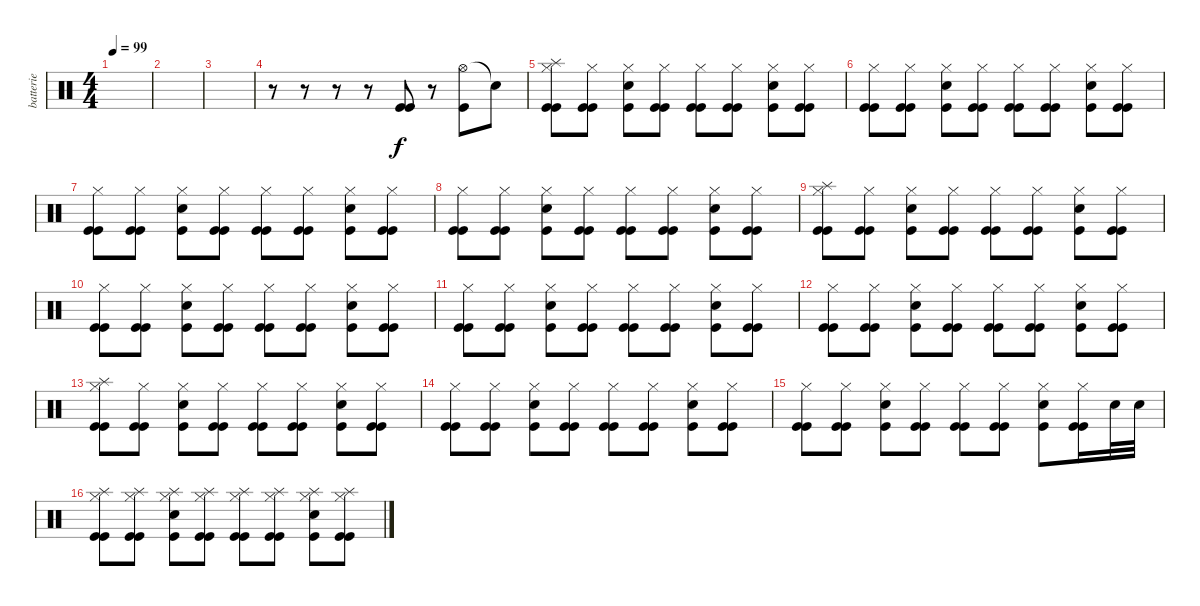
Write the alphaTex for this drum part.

\track ("batterie" "batterie") {instrument percussion}
\staff {score}
\articulation defaults
\ts (4 4)
\tempo 99
\clef neutral
\ks c
|
|
|
r.8 r.8 r.8 r.8 ("Kick (hit)" "Kick (hit)").8 r.8 ("Hi-Hat (open)" "Kick (hit)").8 "Snare (hit)"{t}.8 |
("Kick (hit)" "Splash (hit)" "Hi-Hat (closed)" "Kick (hit)").8 ("Kick (hit)" "Hi-Hat (closed)" "Kick (hit)").8 ("Electric Snare (hit)" "Hi-Hat (closed)" "Kick (hit)").8 ("Kick (hit)" "Hi-Hat (closed)" "Kick (hit)").8 ("Kick (hit)" "Hi-Hat (closed)" "Kick (hit)").8 ("Kick (hit)" "Hi-Hat (closed)" "Kick (hit)").8 ("Electric Snare (hit)" "Hi-Hat (closed)" "Kick (hit)").8 ("Kick (hit)" "Hi-Hat (closed)" "Kick (hit)").8 |
("Kick (hit)" "Hi-Hat (closed)" "Kick (hit)").8 ("Kick (hit)" "Hi-Hat (closed)" "Kick (hit)").8 ("Electric Snare (hit)" "Hi-Hat (closed)" "Kick (hit)").8 ("Kick (hit)" "Hi-Hat (closed)" "Kick (hit)").8 ("Kick (hit)" "Hi-Hat (closed)" "Kick (hit)").8 ("Kick (hit)" "Hi-Hat (closed)" "Kick (hit)").8 ("Electric Snare (hit)" "Hi-Hat (closed)" "Kick (hit)").8 ("Kick (hit)" "Hi-Hat (closed)" "Kick (hit)").8 |
("Kick (hit)" "Hi-Hat (closed)" "Kick (hit)").8 ("Kick (hit)" "Hi-Hat (closed)" "Kick (hit)").8 ("Electric Snare (hit)" "Hi-Hat (closed)" "Kick (hit)").8 ("Kick (hit)" "Hi-Hat (closed)" "Kick (hit)").8 ("Kick (hit)" "Hi-Hat (closed)" "Kick (hit)").8 ("Kick (hit)" "Hi-Hat (closed)" "Kick (hit)").8 ("Electric Snare (hit)" "Hi-Hat (closed)" "Kick (hit)").8 ("Kick (hit)" "Hi-Hat (closed)" "Kick (hit)").8 |
("Kick (hit)" "Hi-Hat (closed)" "Kick (hit)").8 ("Kick (hit)" "Hi-Hat (closed)" "Kick (hit)").8 ("Electric Snare (hit)" "Hi-Hat (closed)" "Kick (hit)").8 ("Kick (hit)" "Hi-Hat (closed)" "Kick (hit)").8 ("Kick (hit)" "Hi-Hat (closed)" "Kick (hit)").8 ("Kick (hit)" "Hi-Hat (closed)" "Kick (hit)").8 ("Electric Snare (hit)" "Hi-Hat (closed)" "Kick (hit)").8 ("Kick (hit)" "Hi-Hat (closed)" "Kick (hit)").8 |
("Kick (hit)" "Splash (hit)" "Hi-Hat (closed)" "Kick (hit)").8 ("Kick (hit)" "Hi-Hat (closed)" "Kick (hit)").8 ("Electric Snare (hit)" "Hi-Hat (closed)" "Kick (hit)").8 ("Kick (hit)" "Hi-Hat (closed)" "Kick (hit)").8 ("Kick (hit)" "Hi-Hat (closed)" "Kick (hit)").8 ("Kick (hit)" "Hi-Hat (closed)" "Kick (hit)").8 ("Electric Snare (hit)" "Hi-Hat (closed)" "Kick (hit)").8 ("Kick (hit)" "Hi-Hat (closed)" "Kick (hit)").8 |
("Kick (hit)" "Hi-Hat (closed)" "Kick (hit)").8 ("Kick (hit)" "Hi-Hat (closed)" "Kick (hit)").8 ("Electric Snare (hit)" "Hi-Hat (closed)" "Kick (hit)").8 ("Kick (hit)" "Hi-Hat (closed)" "Kick (hit)").8 ("Kick (hit)" "Hi-Hat (closed)" "Kick (hit)").8 ("Kick (hit)" "Hi-Hat (closed)" "Kick (hit)").8 ("Electric Snare (hit)" "Hi-Hat (closed)" "Kick (hit)").8 ("Kick (hit)" "Hi-Hat (closed)" "Kick (hit)").8 |
("Kick (hit)" "Hi-Hat (closed)" "Kick (hit)").8 ("Kick (hit)" "Hi-Hat (closed)" "Kick (hit)").8 ("Electric Snare (hit)" "Hi-Hat (closed)" "Kick (hit)").8 ("Kick (hit)" "Hi-Hat (closed)" "Kick (hit)").8 ("Kick (hit)" "Hi-Hat (closed)" "Kick (hit)").8 ("Kick (hit)" "Hi-Hat (closed)" "Kick (hit)").8 ("Electric Snare (hit)" "Hi-Hat (closed)" "Kick (hit)").8 ("Kick (hit)" "Hi-Hat (closed)" "Kick (hit)").8 |
("Kick (hit)" "Hi-Hat (closed)" "Kick (hit)").8 ("Kick (hit)" "Hi-Hat (closed)" "Kick (hit)").8 ("Electric Snare (hit)" "Hi-Hat (closed)" "Kick (hit)").8 ("Kick (hit)" "Hi-Hat (closed)" "Kick (hit)").8 ("Kick (hit)" "Hi-Hat (closed)" "Kick (hit)").8 ("Kick (hit)" "Hi-Hat (closed)" "Kick (hit)").8 ("Electric Snare (hit)" "Hi-Hat (closed)" "Kick (hit)").8 ("Kick (hit)" "Hi-Hat (closed)" "Kick (hit)").8 |
("Kick (hit)" "Splash (hit)" "Hi-Hat (closed)" "Kick (hit)").8 ("Kick (hit)" "Hi-Hat (closed)" "Kick (hit)").8 ("Electric Snare (hit)" "Hi-Hat (closed)" "Kick (hit)").8 ("Kick (hit)" "Hi-Hat (closed)" "Kick (hit)").8 ("Kick (hit)" "Hi-Hat (closed)" "Kick (hit)").8 ("Kick (hit)" "Hi-Hat (closed)" "Kick (hit)").8 ("Electric Snare (hit)" "Hi-Hat (closed)" "Kick (hit)").8 ("Kick (hit)" "Hi-Hat (closed)" "Kick (hit)").8 |
("Kick (hit)" "Hi-Hat (closed)" "Kick (hit)").8 ("Kick (hit)" "Hi-Hat (closed)" "Kick (hit)").8 ("Electric Snare (hit)" "Hi-Hat (closed)" "Kick (hit)").8 ("Kick (hit)" "Hi-Hat (closed)" "Kick (hit)").8 ("Kick (hit)" "Hi-Hat (closed)" "Kick (hit)").8 ("Kick (hit)" "Hi-Hat (closed)" "Kick (hit)").8 ("Electric Snare (hit)" "Hi-Hat (closed)" "Kick (hit)").8 ("Kick (hit)" "Hi-Hat (closed)" "Kick (hit)").8 |
("Kick (hit)" "Hi-Hat (closed)" "Kick (hit)").8 ("Kick (hit)" "Hi-Hat (closed)" "Kick (hit)").8 ("Electric Snare (hit)" "Hi-Hat (closed)" "Kick (hit)").8 ("Kick (hit)" "Hi-Hat (closed)" "Kick (hit)").8 ("Kick (hit)" "Hi-Hat (closed)" "Kick (hit)").8 ("Kick (hit)" "Hi-Hat (closed)" "Kick (hit)").8 ("Electric Snare (hit)" "Hi-Hat (closed)" "Kick (hit)").8 ("Kick (hit)" "Hi-Hat (closed)" "Kick (hit)").16 "Electric Snare (hit)".32 "Electric Snare (hit)".32 |
("Kick (hit)" "Splash (hit)" "Hi-Hat (closed)" "Kick (hit)").8 ("Kick (hit)" "Splash (hit)" "Hi-Hat (closed)" "Kick (hit)").8 ("Electric Snare (hit)" "Splash (hit)" "Hi-Hat (closed)" "Kick (hit)").8 ("Kick (hit)" "Splash (hit)" "Hi-Hat (closed)" "Kick (hit)").8 ("Kick (hit)" "Splash (hit)" "Hi-Hat (closed)" "Kick (hit)").8 ("Kick (hit)" "Splash (hit)" "Hi-Hat (closed)" "Kick (hit)").8 ("Electric Snare (hit)" "Splash (hit)" "Hi-Hat (closed)" "Kick (hit)").8 ("Kick (hit)" "Splash (hit)" "Hi-Hat (closed)" "Kick (hit)").8
